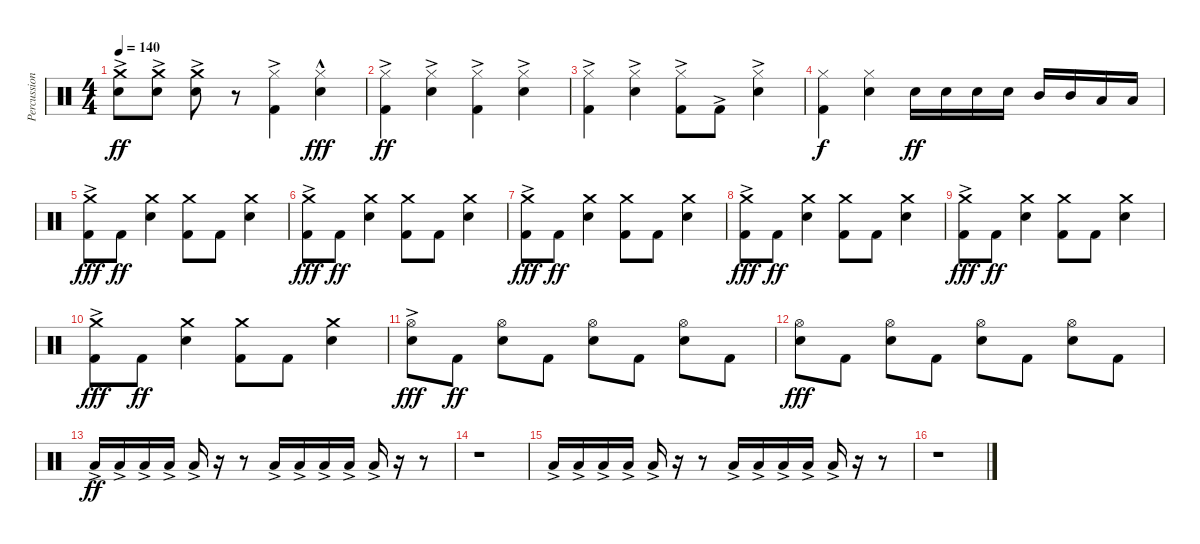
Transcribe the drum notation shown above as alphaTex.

\track ("Percussion" "Percussion") {instrument percussion}
\staff {score}
\articulation defaults
\ts (4 4)
\tempo 140
\clef neutral
\ks c
("Crash medium (hit)" "Snare (hit) 2"{ac}).8{dy ff} ("Crash medium (hit)" "Snare (hit) 2"{ac}).8 ("Crash medium (hit)" "Snare (hit) 2"{ac}).8 r.8 ("Hi-Hat (closed)" "Kick (hit) 2"{ac}).4 ("Hi-Hat (closed)" "Snare (hit) 2"{hac}).4{dy fff} |
("Hi-Hat (closed)" "Kick (hit) 2"{ac}).4{dy ff} ("Hi-Hat (closed)" "Snare (hit) 2"{ac}).4 ("Hi-Hat (closed)" "Kick (hit) 2"{ac}).4 ("Hi-Hat (closed)" "Snare (hit) 2"{ac}).4 |
("Hi-Hat (closed)" "Kick (hit) 2"{ac}).4 ("Hi-Hat (closed)" "Snare (hit) 2"{ac}).4 ("Hi-Hat (closed)" "Kick (hit) 2"{ac}).8 "Kick (hit) 2"{ac}.8 ("Hi-Hat (closed)" "Snare (hit) 2"{ac}).4 |
("Hi-Hat (closed)" "Kick (hit) 2").4{dy f} ("Hi-Hat (closed)" "Snare (hit) 2").4 "Snare (hit) 2".16{dy ff} "Snare (hit) 2".16 "Snare (hit) 2".16 "Snare (hit) 2".16 "Mid Tom (hit)".16 "Mid Tom (hit)".16 "Low Tom (hit)".16 "Low Tom (hit)".16 |
("Crash medium (hit)" "Kick (hit) 2"{ac}).8{dy fff} "Kick (hit) 2".8{dy ff} ("Crash medium (hit)" "Snare (hit) 2").4 ("Crash medium (hit)" "Kick (hit) 2").8 "Kick (hit) 2".8 ("Crash medium (hit)" "Snare (hit) 2").4 |
("Crash medium (hit)" "Kick (hit) 2"{ac}).8{dy fff} "Kick (hit) 2".8{dy ff} ("Crash medium (hit)" "Snare (hit) 2").4 ("Crash medium (hit)" "Kick (hit) 2").8 "Kick (hit) 2".8 ("Crash medium (hit)" "Snare (hit) 2").4 |
("Crash medium (hit)" "Kick (hit) 2"{ac}).8{dy fff} "Kick (hit) 2".8{dy ff} ("Crash medium (hit)" "Snare (hit) 2").4 ("Crash medium (hit)" "Kick (hit) 2").8 "Kick (hit) 2".8 ("Crash medium (hit)" "Snare (hit) 2").4 |
("Crash medium (hit)" "Kick (hit) 2"{ac}).8{dy fff} "Kick (hit) 2".8{dy ff} ("Crash medium (hit)" "Snare (hit) 2").4 ("Crash medium (hit)" "Kick (hit) 2").8 "Kick (hit) 2".8 ("Crash medium (hit)" "Snare (hit) 2").4 |
("Crash medium (hit)" "Kick (hit) 2"{ac}).8{dy fff} "Kick (hit) 2".8{dy ff} ("Crash medium (hit)" "Snare (hit) 2").4 ("Crash medium (hit)" "Kick (hit) 2").8 "Kick (hit) 2".8 ("Crash medium (hit)" "Snare (hit) 2").4 |
("Crash medium (hit)" "Kick (hit) 2"{ac}).8{dy fff} "Kick (hit) 2".8{dy ff} ("Crash medium (hit)" "Snare (hit) 2").4 ("Crash medium (hit)" "Kick (hit) 2").8 "Kick (hit) 2".8 ("Crash medium (hit)" "Snare (hit) 2").4 |
("Hi-Hat (open)" "Snare (hit) 2"{ac}).8{dy fff} "Kick (hit) 2".8{dy ff} ("Hi-Hat (open)" "Snare (hit) 2").8 "Kick (hit) 2".8 ("Hi-Hat (open)" "Snare (hit) 2").8 "Kick (hit) 2".8 ("Hi-Hat (open)" "Snare (hit) 2").8 "Kick (hit) 2".8 |
("Hi-Hat (open)" "Snare (hit) 2").8{dy fff} "Kick (hit) 2".8 ("Hi-Hat (open)" "Snare (hit) 2").8 "Kick (hit) 2".8 ("Hi-Hat (open)" "Snare (hit) 2").8 "Kick (hit) 2".8 ("Hi-Hat (open)" "Snare (hit) 2").8 "Kick (hit) 2".8 |
"Low Floor Tom (hit)"{ac}.16{dy ff} "Low Floor Tom (hit)"{ac}.16 "Low Floor Tom (hit)"{ac}.16 "Low Floor Tom (hit)"{ac}.16 "Low Floor Tom (hit)"{ac}.16 r.16 r.8 "Low Floor Tom (hit)"{ac}.16 "Low Floor Tom (hit)"{ac}.16 "Low Floor Tom (hit)"{ac}.16 "Low Floor Tom (hit)"{ac}.16 "Low Floor Tom (hit)"{ac}.16 r.16 r.8 |
r.1 |
"Low Floor Tom (hit)"{ac}.16 "Low Floor Tom (hit)"{ac}.16 "Low Floor Tom (hit)"{ac}.16 "Low Floor Tom (hit)"{ac}.16 "Low Floor Tom (hit)"{ac}.16 r.16 r.8 "Low Floor Tom (hit)"{ac}.16 "Low Floor Tom (hit)"{ac}.16 "Low Floor Tom (hit)"{ac}.16 "Low Floor Tom (hit)"{ac}.16 "Low Floor Tom (hit)"{ac}.16 r.16 r.8 |
r.1
